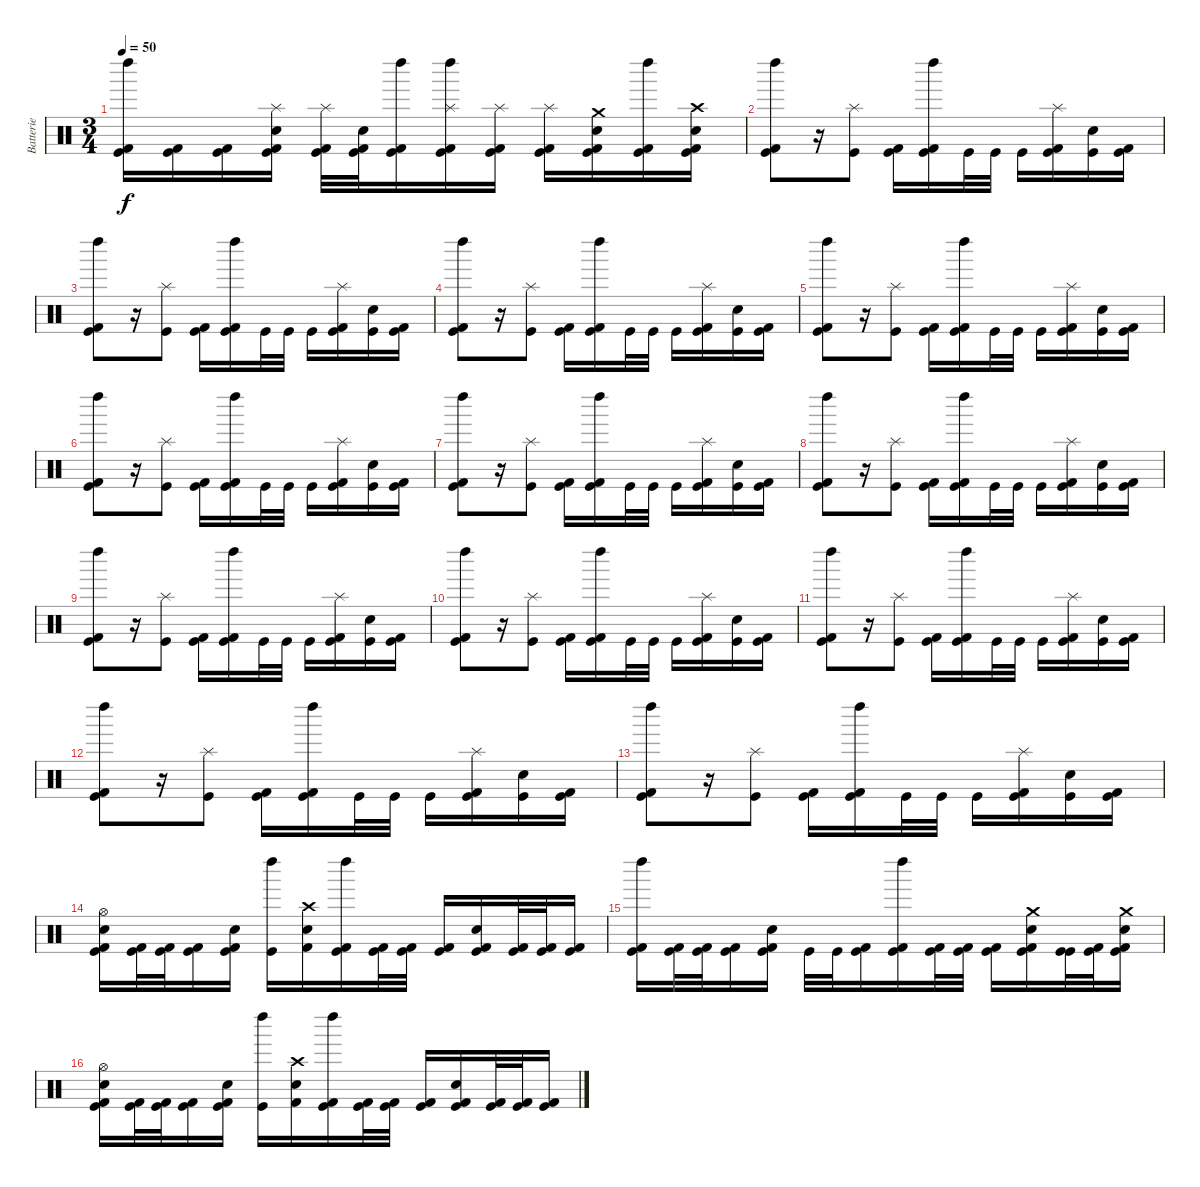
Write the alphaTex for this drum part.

\track ("Batterie" "Batterie") {instrument percussion}
\staff {score}
\articulation defaults
\ts (3 4)
\tempo 50
\clef neutral
\ks c
("Kick (hit)" "Kick (hit) 2" "Left Maraca (hit)").16{dy f} ("Kick (hit)" "Kick (hit) 2").16 ("Kick (hit)" "Kick (hit) 2").16 ("Kick (hit)" "Kick (hit) 2" "Electric Snare (hit)" "Splash (hit)").16 ("Kick (hit)" "Kick (hit) 2" "Splash (hit)").32 ("Kick (hit)" "Kick (hit) 2" "Electric Snare (hit)").32 ("Kick (hit)" "Kick (hit) 2" "Left Maraca (hit)").16 ("Kick (hit)" "Kick (hit) 2" "Left Maraca (hit)" "Splash (hit)").16 ("Kick (hit)" "Kick (hit) 2" "Splash (hit)").16 ("Kick (hit)" "Kick (hit) 2" "Splash (hit)").16 ("Kick (hit)" "Kick (hit) 2" "Electric Snare (hit)" "Crash medium (hit)").16 ("Kick (hit)" "Kick (hit) 2" "Left Maraca (hit)").16 ("Kick (hit)" "Kick (hit) 2" "Electric Snare (hit)" "Crash high (hit)").16 |
("Kick (hit)" "Kick (hit) 2" "Left Maraca (hit)").8 r.16 ("Kick (hit)" "Splash (hit)").8 ("Kick (hit)" "Kick (hit) 2").16 ("Kick (hit)" "Kick (hit) 2" "Left Maraca (hit)").16 "Kick (hit)".32 "Kick (hit)".32 "Kick (hit)".16 ("Kick (hit)" "Kick (hit) 2" "Splash (hit)").16 ("Kick (hit)" "Electric Snare (hit)").16 ("Kick (hit)" "Kick (hit) 2").16 |
("Kick (hit)" "Kick (hit) 2" "Left Maraca (hit)").8 r.16 ("Kick (hit)" "Splash (hit)").8 ("Kick (hit)" "Kick (hit) 2").16 ("Kick (hit)" "Kick (hit) 2" "Left Maraca (hit)").16 "Kick (hit)".32 "Kick (hit)".32 "Kick (hit)".16 ("Kick (hit)" "Kick (hit) 2" "Splash (hit)").16 ("Kick (hit)" "Electric Snare (hit)").16 ("Kick (hit)" "Kick (hit) 2").16 |
("Kick (hit)" "Kick (hit) 2" "Left Maraca (hit)").8 r.16 ("Kick (hit)" "Splash (hit)").8 ("Kick (hit)" "Kick (hit) 2").16 ("Kick (hit)" "Kick (hit) 2" "Left Maraca (hit)").16 "Kick (hit)".32 "Kick (hit)".32 "Kick (hit)".16 ("Kick (hit)" "Kick (hit) 2" "Splash (hit)").16 ("Kick (hit)" "Electric Snare (hit)").16 ("Kick (hit)" "Kick (hit) 2").16 |
("Kick (hit)" "Kick (hit) 2" "Left Maraca (hit)").8 r.16 ("Kick (hit)" "Splash (hit)").8 ("Kick (hit)" "Kick (hit) 2").16 ("Kick (hit)" "Kick (hit) 2" "Left Maraca (hit)").16 "Kick (hit)".32 "Kick (hit)".32 "Kick (hit)".16 ("Kick (hit)" "Kick (hit) 2" "Splash (hit)").16 ("Kick (hit)" "Electric Snare (hit)").16 ("Kick (hit)" "Kick (hit) 2").16 |
("Kick (hit)" "Kick (hit) 2" "Left Maraca (hit)").8 r.16 ("Kick (hit)" "Splash (hit)").8 ("Kick (hit)" "Kick (hit) 2").16 ("Kick (hit)" "Kick (hit) 2" "Left Maraca (hit)").16 "Kick (hit)".32 "Kick (hit)".32 "Kick (hit)".16 ("Kick (hit)" "Kick (hit) 2" "Splash (hit)").16 ("Kick (hit)" "Electric Snare (hit)").16 ("Kick (hit)" "Kick (hit) 2").16 |
("Kick (hit)" "Kick (hit) 2" "Left Maraca (hit)").8 r.16 ("Kick (hit)" "Splash (hit)").8 ("Kick (hit)" "Kick (hit) 2").16 ("Kick (hit)" "Kick (hit) 2" "Left Maraca (hit)").16 "Kick (hit)".32 "Kick (hit)".32 "Kick (hit)".16 ("Kick (hit)" "Kick (hit) 2" "Splash (hit)").16 ("Kick (hit)" "Electric Snare (hit)").16 ("Kick (hit)" "Kick (hit) 2").16 |
("Kick (hit)" "Kick (hit) 2" "Left Maraca (hit)").8 r.16 ("Kick (hit)" "Splash (hit)").8 ("Kick (hit)" "Kick (hit) 2").16 ("Kick (hit)" "Kick (hit) 2" "Left Maraca (hit)").16 "Kick (hit)".32 "Kick (hit)".32 "Kick (hit)".16 ("Kick (hit)" "Kick (hit) 2" "Splash (hit)").16 ("Kick (hit)" "Electric Snare (hit)").16 ("Kick (hit)" "Kick (hit) 2").16 |
("Kick (hit)" "Kick (hit) 2" "Left Maraca (hit)").8 r.16 ("Kick (hit)" "Splash (hit)").8 ("Kick (hit)" "Kick (hit) 2").16 ("Kick (hit)" "Kick (hit) 2" "Left Maraca (hit)").16 "Kick (hit)".32 "Kick (hit)".32 "Kick (hit)".16 ("Kick (hit)" "Kick (hit) 2" "Splash (hit)").16 ("Kick (hit)" "Electric Snare (hit)").16 ("Kick (hit)" "Kick (hit) 2").16 |
("Kick (hit)" "Kick (hit) 2" "Left Maraca (hit)").8 r.16 ("Kick (hit)" "Splash (hit)").8 ("Kick (hit)" "Kick (hit) 2").16 ("Kick (hit)" "Kick (hit) 2" "Left Maraca (hit)").16 "Kick (hit)".32 "Kick (hit)".32 "Kick (hit)".16 ("Kick (hit)" "Kick (hit) 2" "Splash (hit)").16 ("Kick (hit)" "Electric Snare (hit)").16 ("Kick (hit)" "Kick (hit) 2").16 |
("Kick (hit)" "Kick (hit) 2" "Left Maraca (hit)").8 r.16 ("Kick (hit)" "Splash (hit)").8 ("Kick (hit)" "Kick (hit) 2").16 ("Kick (hit)" "Kick (hit) 2" "Left Maraca (hit)").16 "Kick (hit)".32 "Kick (hit)".32 "Kick (hit)".16 ("Kick (hit)" "Kick (hit) 2" "Splash (hit)").16 ("Kick (hit)" "Electric Snare (hit)").16 ("Kick (hit)" "Kick (hit) 2").16 |
("Kick (hit)" "Kick (hit) 2" "Left Maraca (hit)").8 r.16 ("Kick (hit)" "Splash (hit)").8 ("Kick (hit)" "Kick (hit) 2").16 ("Kick (hit)" "Kick (hit) 2" "Left Maraca (hit)").16 "Kick (hit)".32 "Kick (hit)".32 "Kick (hit)".16 ("Kick (hit)" "Kick (hit) 2" "Splash (hit)").16 ("Kick (hit)" "Electric Snare (hit)").16 ("Kick (hit)" "Kick (hit) 2").16 |
("Kick (hit)" "Kick (hit) 2" "Left Maraca (hit)").8 r.16 ("Kick (hit)" "Splash (hit)").8 ("Kick (hit)" "Kick (hit) 2").16 ("Kick (hit)" "Kick (hit) 2" "Left Maraca (hit)").16 "Kick (hit)".32 "Kick (hit)".32 "Kick (hit)".16 ("Kick (hit)" "Kick (hit) 2" "Splash (hit)").16 ("Kick (hit)" "Electric Snare (hit)").16 ("Kick (hit)" "Kick (hit) 2").16 |
("Kick (hit)" "Kick (hit) 2" "Electric Snare (hit)" "Hi-Hat (open)").16 ("Kick (hit)" "Kick (hit) 2").32 ("Kick (hit)" "Kick (hit) 2").32 ("Kick (hit)" "Kick (hit) 2").16 ("Kick (hit)" "Kick (hit) 2" "Electric Snare (hit)").16 ("Kick (hit)" "Left Maraca (hit)").16 ("Kick (hit) 2" "Electric Snare (hit)" "Crash high (hit)").16 ("Kick (hit)" "Kick (hit) 2" "Left Maraca (hit)").16 ("Kick (hit)" "Kick (hit) 2").32 ("Kick (hit)" "Kick (hit) 2").32 ("Kick (hit)" "Kick (hit) 2").16 ("Kick (hit)" "Kick (hit) 2" "Electric Snare (hit)").16 ("Kick (hit)" "Kick (hit) 2").32 ("Kick (hit)" "Kick (hit) 2").32 ("Kick (hit)" "Kick (hit) 2").16 |
("Kick (hit)" "Kick (hit) 2" "Left Maraca (hit)").16 ("Kick (hit)" "Kick (hit) 2").32 ("Kick (hit)" "Kick (hit) 2").32 ("Kick (hit)" "Kick (hit) 2").16 ("Kick (hit)" "Kick (hit) 2" "Electric Snare (hit)").16 "Kick (hit)".32 "Kick (hit)".32 ("Kick (hit)" "Kick (hit) 2").16 ("Kick (hit)" "Kick (hit) 2" "Left Maraca (hit)").16 ("Kick (hit)" "Kick (hit) 2").32 ("Kick (hit)" "Kick (hit) 2").32 ("Kick (hit)" "Kick (hit) 2").16 ("Kick (hit)" "Kick (hit) 2" "Electric Snare (hit)" "Crash medium (hit)").16 ("Kick (hit)" "Kick (hit)").32 ("Kick (hit)" "Kick (hit) 2").32 ("Kick (hit)" "Kick (hit) 2" "Electric Snare (hit)" "Crash medium (hit)").16 |
("Kick (hit)" "Kick (hit) 2" "Electric Snare (hit)" "Hi-Hat (open)").16 ("Kick (hit)" "Kick (hit) 2").32 ("Kick (hit)" "Kick (hit) 2").32 ("Kick (hit)" "Kick (hit) 2").16 ("Kick (hit)" "Kick (hit) 2" "Electric Snare (hit)").16 ("Kick (hit)" "Left Maraca (hit)").16 ("Kick (hit) 2" "Electric Snare (hit)" "Crash high (hit)").16 ("Kick (hit)" "Kick (hit) 2" "Left Maraca (hit)").16 ("Kick (hit)" "Kick (hit) 2").32 ("Kick (hit)" "Kick (hit) 2").32 ("Kick (hit)" "Kick (hit) 2").16 ("Kick (hit)" "Kick (hit) 2" "Electric Snare (hit)").16 ("Kick (hit)" "Kick (hit) 2").32 ("Kick (hit)" "Kick (hit) 2").32 ("Kick (hit)" "Kick (hit) 2").16
